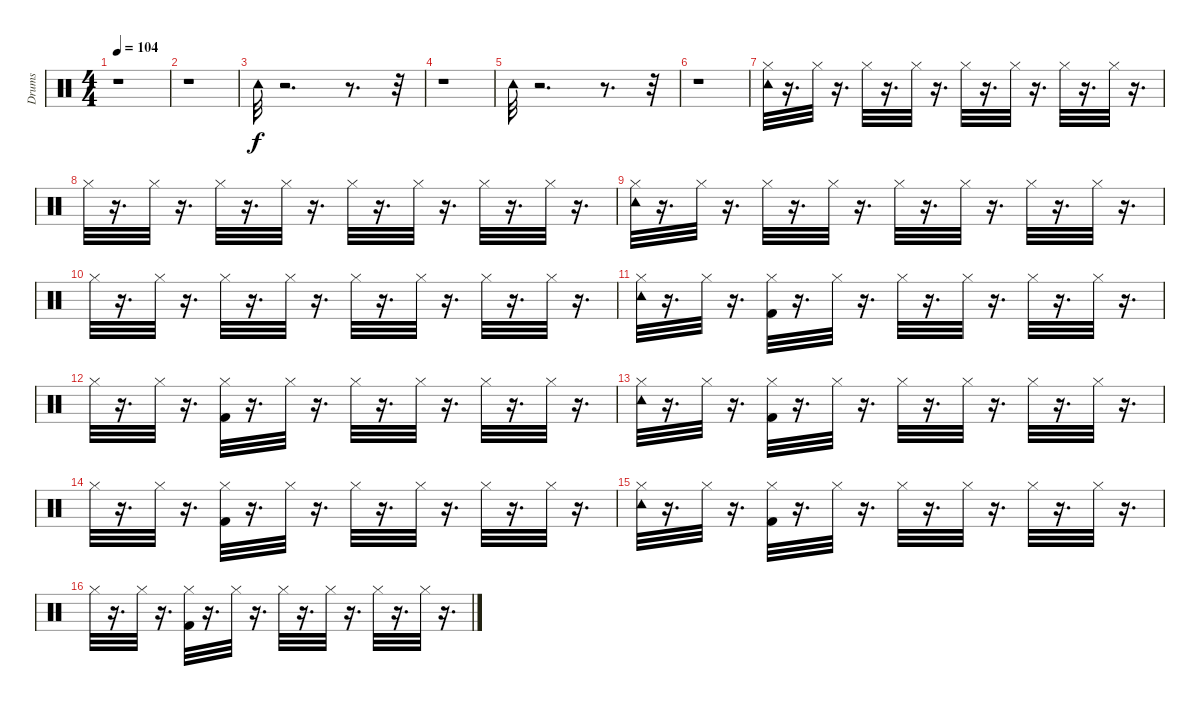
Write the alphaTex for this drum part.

\track ("Drums" "Drums") {instrument percussion}
\staff {score}
\articulation defaults
\ts (4 4)
\tempo 104
\clef neutral
\ks c
r.1{dy f} |
r.1 |
"Tambourine (hit)".32 r.2{d} r.8{d} r.32 |
r.1 |
"Tambourine (hit)".32 r.2{d} r.8{d} r.32 |
r.1 |
("Hi-Hat (closed)" "Tambourine (hit)").32 r.16{d} "Hi-Hat (closed)".32 r.16{d} "Hi-Hat (closed)".32 r.16{d} "Hi-Hat (closed)".32 r.16{d} "Hi-Hat (closed)".32 r.16{d} "Hi-Hat (closed)".32 r.16{d} "Hi-Hat (closed)".32 r.16{d} "Hi-Hat (closed)".32 r.16{d} |
"Hi-Hat (closed)".32 r.16{d} "Hi-Hat (closed)".32 r.16{d} "Hi-Hat (closed)".32 r.16{d} "Hi-Hat (closed)".32 r.16{d} "Hi-Hat (closed)".32 r.16{d} "Hi-Hat (closed)".32 r.16{d} "Hi-Hat (closed)".32 r.16{d} "Hi-Hat (closed)".32 r.16{d} |
("Hi-Hat (closed)" "Tambourine (hit)").32 r.16{d} "Hi-Hat (closed)".32 r.16{d} "Hi-Hat (closed)".32 r.16{d} "Hi-Hat (closed)".32 r.16{d} "Hi-Hat (closed)".32 r.16{d} "Hi-Hat (closed)".32 r.16{d} "Hi-Hat (closed)".32 r.16{d} "Hi-Hat (closed)".32 r.16{d} |
"Hi-Hat (closed)".32 r.16{d} "Hi-Hat (closed)".32 r.16{d} "Hi-Hat (closed)".32 r.16{d} "Hi-Hat (closed)".32 r.16{d} "Hi-Hat (closed)".32 r.16{d} "Hi-Hat (closed)".32 r.16{d} "Hi-Hat (closed)".32 r.16{d} "Hi-Hat (closed)".32 r.16{d} |
("Hi-Hat (closed)" "Tambourine (hit)").32 r.16{d} "Hi-Hat (closed)".32 r.16{d} ("Hi-Hat (closed)" "Kick (hit) 2").32 r.16{d} "Hi-Hat (closed)".32 r.16{d} "Hi-Hat (closed)".32 r.16{d} "Hi-Hat (closed)".32 r.16{d} "Hi-Hat (closed)".32 r.16{d} "Hi-Hat (closed)".32 r.16{d} |
"Hi-Hat (closed)".32 r.16{d} "Hi-Hat (closed)".32 r.16{d} ("Kick (hit) 2" "Hi-Hat (closed)").32 r.16{d} "Hi-Hat (closed)".32 r.16{d} "Hi-Hat (closed)".32 r.16{d} "Hi-Hat (closed)".32 r.16{d} "Hi-Hat (closed)".32 r.16{d} "Hi-Hat (closed)".32 r.16{d} |
("Hi-Hat (closed)" "Tambourine (hit)").32 r.16{d} "Hi-Hat (closed)".32 r.16{d} ("Kick (hit) 2" "Hi-Hat (closed)").32 r.16{d} "Hi-Hat (closed)".32 r.16{d} "Hi-Hat (closed)".32 r.16{d} "Hi-Hat (closed)".32 r.16{d} "Hi-Hat (closed)".32 r.16{d} "Hi-Hat (closed)".32 r.16{d} |
"Hi-Hat (closed)".32 r.16{d} "Hi-Hat (closed)".32 r.16{d} ("Kick (hit) 2" "Hi-Hat (closed)").32 r.16{d} "Hi-Hat (closed)".32 r.16{d} "Hi-Hat (closed)".32 r.16{d} "Hi-Hat (closed)".32 r.16{d} "Hi-Hat (closed)".32 r.16{d} "Hi-Hat (closed)".32 r.16{d} |
("Hi-Hat (closed)" "Tambourine (hit)").32 r.16{d} "Hi-Hat (closed)".32 r.16{d} ("Hi-Hat (closed)" "Kick (hit) 2").32 r.16{d} "Hi-Hat (closed)".32 r.16{d} "Hi-Hat (closed)".32 r.16{d} "Hi-Hat (closed)".32 r.16{d} "Hi-Hat (closed)".32 r.16{d} "Hi-Hat (closed)".32 r.16{d} |
"Hi-Hat (closed)".32 r.16{d} "Hi-Hat (closed)".32 r.16{d} ("Kick (hit) 2" "Hi-Hat (closed)").32 r.16{d} "Hi-Hat (closed)".32 r.16{d} "Hi-Hat (closed)".32 r.16{d} "Hi-Hat (closed)".32 r.16{d} "Hi-Hat (closed)".32 r.16{d} "Hi-Hat (closed)".32 r.16{d}
